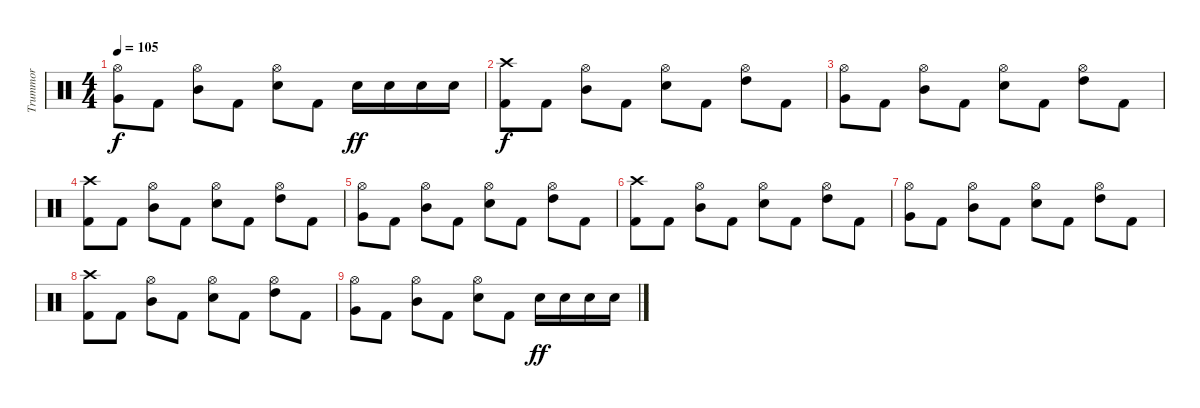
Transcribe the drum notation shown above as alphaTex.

\track ("Trummor" "Trummor") {instrument percussion}
\staff {score}
\articulation defaults
\ts (4 4)
\tempo 105
\clef neutral
\ks c
("Hi-Hat (open)" "Very Low Tom (hit)").8{dy f} "Kick (hit) 2".8 ("Hi-Hat (open)" "Mid Tom (hit)").8 "Kick (hit) 2".8 ("Hi-Hat (open)" "Snare (hit) 2").8 "Kick (hit) 2".8 "Snare (hit) 2".16{dy ff} "Snare (hit) 2".16 "Snare (hit) 2".16 "Snare (hit) 2".16 |
("Crash high (hit)" "Kick (hit) 2").8{dy f} "Kick (hit) 2".8 ("Hi-Hat (open)" "Mid Tom (hit)").8 "Kick (hit) 2".8 ("Hi-Hat (open)" "Snare (hit) 2").8 "Kick (hit) 2".8 ("Hi-Hat (open)" "High Tom (hit)").8 "Kick (hit) 2".8 |
("Hi-Hat (open)" "Very Low Tom (hit)").8 "Kick (hit) 2".8 ("Hi-Hat (open)" "Mid Tom (hit)").8 "Kick (hit) 2".8 ("Hi-Hat (open)" "Snare (hit) 2").8 "Kick (hit) 2".8 ("Hi-Hat (open)" "High Tom (hit)").8 "Kick (hit) 2".8 |
("Crash high (hit)" "Kick (hit) 2").8 "Kick (hit) 2".8 ("Hi-Hat (open)" "Mid Tom (hit)").8 "Kick (hit) 2".8 ("Hi-Hat (open)" "Snare (hit) 2").8 "Kick (hit) 2".8 ("Hi-Hat (open)" "High Tom (hit)").8 "Kick (hit) 2".8 |
("Hi-Hat (open)" "Very Low Tom (hit)").8 "Kick (hit) 2".8 ("Hi-Hat (open)" "Mid Tom (hit)").8 "Kick (hit) 2".8 ("Hi-Hat (open)" "Snare (hit) 2").8 "Kick (hit) 2".8 ("Hi-Hat (open)" "High Tom (hit)").8 "Kick (hit) 2".8 |
("Crash high (hit)" "Kick (hit) 2").8 "Kick (hit) 2".8 ("Hi-Hat (open)" "Mid Tom (hit)").8 "Kick (hit) 2".8 ("Hi-Hat (open)" "Snare (hit) 2").8 "Kick (hit) 2".8 ("Hi-Hat (open)" "High Tom (hit)").8 "Kick (hit) 2".8 |
("Hi-Hat (open)" "Very Low Tom (hit)").8 "Kick (hit) 2".8 ("Hi-Hat (open)" "Mid Tom (hit)").8 "Kick (hit) 2".8 ("Hi-Hat (open)" "Snare (hit) 2").8 "Kick (hit) 2".8 ("Hi-Hat (open)" "High Tom (hit)").8 "Kick (hit) 2".8 |
("Crash high (hit)" "Kick (hit) 2").8 "Kick (hit) 2".8 ("Hi-Hat (open)" "Mid Tom (hit)").8 "Kick (hit) 2".8 ("Hi-Hat (open)" "Snare (hit) 2").8 "Kick (hit) 2".8 ("Hi-Hat (open)" "High Tom (hit)").8 "Kick (hit) 2".8 |
("Hi-Hat (open)" "Very Low Tom (hit)").8 "Kick (hit) 2".8 ("Hi-Hat (open)" "Mid Tom (hit)").8 "Kick (hit) 2".8 ("Hi-Hat (open)" "Snare (hit) 2").8 "Kick (hit) 2".8 "Snare (hit) 2".16{dy ff} "Snare (hit) 2".16 "Snare (hit) 2".16 "Snare (hit) 2".16
